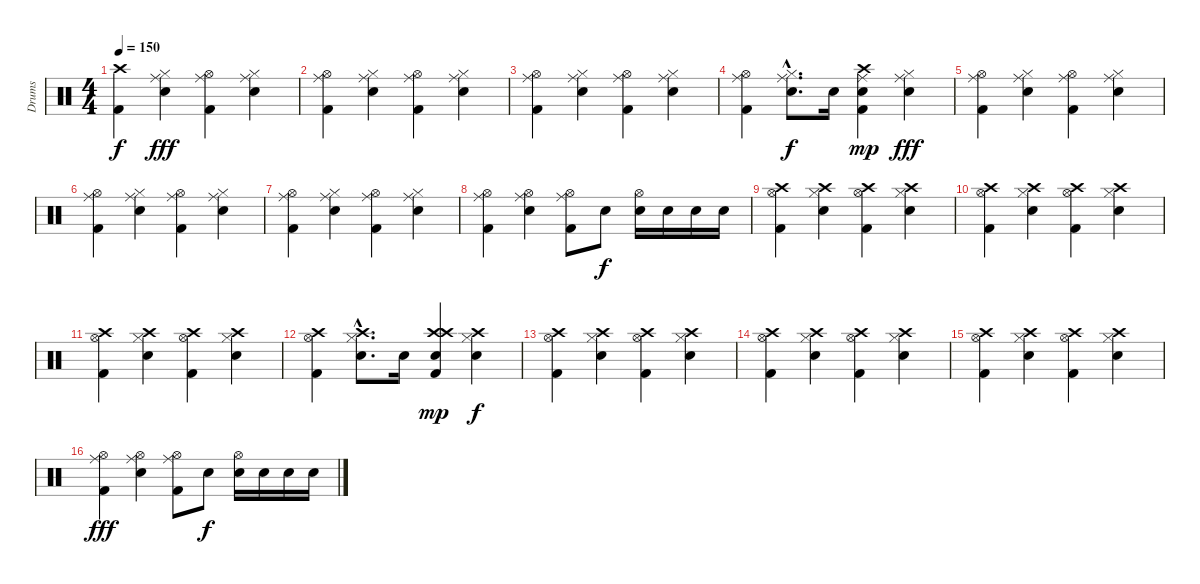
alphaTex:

\track ("Drums" "Drums") {instrument percussion}
\staff {score}
\articulation defaults
\ts (4 4)
\tempo 150
\clef neutral
\ks c
("Kick (hit) 2" "Crash high (hit)").4{dy f} ("Electric Snare (hit)" "Ride (middle)" "Hi-Hat (closed)").4{dy fff} ("Kick (hit) 2" "Ride (middle)" "Hi-Hat (open)").4 ("Electric Snare (hit)" "Ride (middle)" "Hi-Hat (closed)").4 |
("Kick (hit) 2" "Ride (middle)" "Hi-Hat (open)").4 ("Electric Snare (hit)" "Ride (middle)" "Hi-Hat (closed)").4 ("Kick (hit) 2" "Ride (middle)" "Hi-Hat (open)").4 ("Electric Snare (hit)" "Ride (middle)" "Hi-Hat (closed)").4 |
("Kick (hit) 2" "Ride (middle)" "Hi-Hat (open)").4 ("Electric Snare (hit)" "Ride (middle)" "Hi-Hat (closed)").4 ("Kick (hit) 2" "Ride (middle)" "Hi-Hat (open)").4 ("Electric Snare (hit)" "Ride (middle)" "Hi-Hat (closed)").4 |
("Kick (hit) 2" "Ride (middle)" "Hi-Hat (open)").4 ("Electric Snare (hit)"{hac} "Ride (middle)"{hac} "Hi-Hat (closed)"{hac}).8{d dy f} "Electric Snare (hit)".16 ("Electric Snare (hit)" "Kick (hit) 2" "Ride (middle)" "Crash high (hit)").4{dy mp} ("Electric Snare (hit)" "Ride (middle)" "Hi-Hat (closed)").4{dy fff} |
("Kick (hit) 2" "Ride (middle)" "Hi-Hat (open)").4 ("Electric Snare (hit)" "Ride (middle)" "Hi-Hat (closed)").4 ("Kick (hit) 2" "Ride (middle)" "Hi-Hat (open)").4 ("Electric Snare (hit)" "Ride (middle)" "Hi-Hat (closed)").4 |
("Kick (hit) 2" "Ride (middle)" "Hi-Hat (open)").4 ("Electric Snare (hit)" "Ride (middle)" "Hi-Hat (closed)").4 ("Kick (hit) 2" "Ride (middle)" "Hi-Hat (open)").4 ("Electric Snare (hit)" "Ride (middle)" "Hi-Hat (closed)").4 |
("Kick (hit) 2" "Ride (middle)" "Hi-Hat (open)").4 ("Electric Snare (hit)" "Ride (middle)" "Hi-Hat (closed)").4 ("Kick (hit) 2" "Ride (middle)" "Hi-Hat (open)").4 ("Electric Snare (hit)" "Ride (middle)" "Hi-Hat (closed)").4 |
("Kick (hit) 2" "Ride (middle)" "Hi-Hat (open)").4 ("Electric Snare (hit)" "Ride (middle)" "Hi-Hat (open)").4 ("Kick (hit) 2" "Ride (middle)" "Hi-Hat (open)").8 "Electric Snare (hit)".8{dy f} ("Electric Snare (hit)" "Hi-Hat (open)").16 "Electric Snare (hit)".16 "Electric Snare (hit)".16 "Electric Snare (hit)".16 |
("Kick (hit) 2" "Crash high (hit)" "Hi-Hat (open)").4 ("Electric Snare (hit)" "Crash high (hit)" "Hi-Hat (closed)").4 ("Kick (hit) 2" "Crash high (hit)" "Hi-Hat (open)").4 ("Electric Snare (hit)" "Crash high (hit)" "Hi-Hat (closed)").4 |
("Kick (hit) 2" "Crash high (hit)" "Hi-Hat (open)").4 ("Electric Snare (hit)" "Crash high (hit)" "Hi-Hat (closed)").4 ("Kick (hit) 2" "Crash high (hit)" "Hi-Hat (open)").4 ("Electric Snare (hit)" "Crash high (hit)" "Hi-Hat (closed)").4 |
("Kick (hit) 2" "Crash high (hit)" "Hi-Hat (open)").4 ("Electric Snare (hit)" "Crash high (hit)" "Hi-Hat (closed)").4 ("Kick (hit) 2" "Crash high (hit)" "Hi-Hat (open)").4 ("Electric Snare (hit)" "Crash high (hit)" "Hi-Hat (closed)").4 |
("Kick (hit) 2" "Crash high (hit)" "Hi-Hat (open)").4 ("Electric Snare (hit)"{hac} "Crash high (hit)"{hac} "Hi-Hat (closed)"{hac}).8{d} "Electric Snare (hit)".16 ("Electric Snare (hit)" "Kick (hit) 2" "Crash high (hit)" "Crash high (hit)").4{dy mp} ("Electric Snare (hit)" "Crash high (hit)" "Hi-Hat (closed)").4{dy f} |
("Kick (hit) 2" "Crash high (hit)" "Hi-Hat (open)").4 ("Electric Snare (hit)" "Crash high (hit)" "Hi-Hat (closed)").4 ("Kick (hit) 2" "Crash high (hit)" "Hi-Hat (open)").4 ("Electric Snare (hit)" "Crash high (hit)" "Hi-Hat (closed)").4 |
("Kick (hit) 2" "Crash high (hit)" "Hi-Hat (open)").4 ("Electric Snare (hit)" "Crash high (hit)" "Hi-Hat (closed)").4 ("Kick (hit) 2" "Crash high (hit)" "Hi-Hat (open)").4 ("Electric Snare (hit)" "Crash high (hit)" "Hi-Hat (closed)").4 |
("Kick (hit) 2" "Crash high (hit)" "Hi-Hat (open)").4 ("Electric Snare (hit)" "Crash high (hit)" "Hi-Hat (closed)").4 ("Kick (hit) 2" "Crash high (hit)" "Hi-Hat (open)").4 ("Electric Snare (hit)" "Crash high (hit)" "Hi-Hat (closed)").4 |
("Kick (hit) 2" "Ride (middle)" "Hi-Hat (open)").4{dy fff} ("Electric Snare (hit)" "Ride (middle)" "Hi-Hat (open)").4 ("Kick (hit) 2" "Ride (middle)" "Hi-Hat (open)").8 "Electric Snare (hit)".8{dy f} ("Electric Snare (hit)" "Hi-Hat (open)").16 "Electric Snare (hit)".16 "Electric Snare (hit)".16 "Electric Snare (hit)".16
